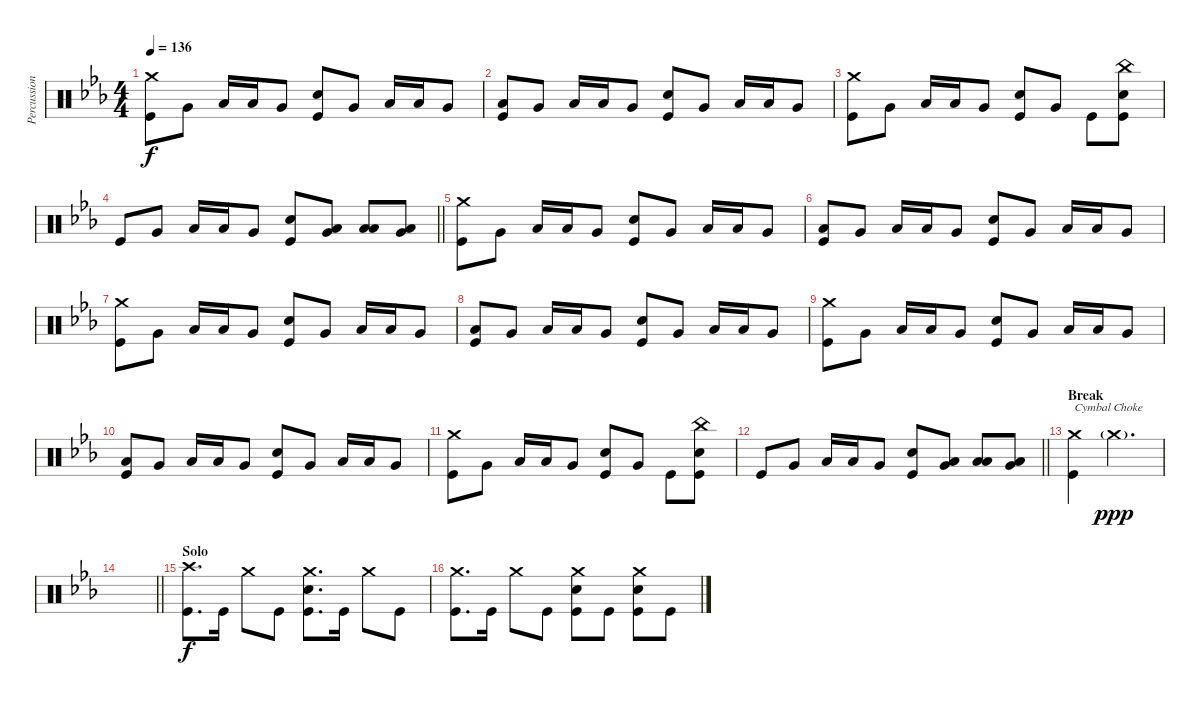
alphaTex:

\track ("Percussion" "Percussion") {instrument percussion}
\staff {score}
\articulation defaults
\ts (4 4)
\tempo 136
\clef neutral
\ks eb
("Crash medium (hit)" "Kick (hit)").8{dy f} "Very Low Tom (hit)".8 "Low Tom (hit)".16 "Low Tom (hit)".16 "Very Low Tom (hit)".8 ("Electric Snare (hit)" "Kick (hit)").8 "Very Low Tom (hit)".8 "Low Tom (hit)".16 "Low Tom (hit)".16 "Very Low Tom (hit)".8 |
("Low Tom (hit)" "Kick (hit)").8 "Very Low Tom (hit)".8 "Low Tom (hit)".16 "Low Tom (hit)".16 "Very Low Tom (hit)".8 ("Electric Snare (hit)" "Kick (hit)").8 "Very Low Tom (hit)".8 "Low Tom (hit)".16 "Low Tom (hit)".16 "Very Low Tom (hit)".8 |
("Crash medium (hit)" "Kick (hit)").8 "Very Low Tom (hit)".8 "Low Tom (hit)".16 "Low Tom (hit)".16 "Very Low Tom (hit)".8 ("Electric Snare (hit)" "Kick (hit)").8 "Very Low Tom (hit)".8 "Kick (hit)".8 ("China (hit)" "Electric Snare (hit)" "Kick (hit)").8 |
\barLineRight lightlight "Kick (hit)".8 "Very Low Tom (hit)".8 "Low Tom (hit)".16 "Low Tom (hit)".16 "Very Low Tom (hit)".8
("Electric Snare (hit)" "Kick (hit)").8 ("Low Tom (hit)" "Very Low Tom (hit)").8 ("Low Tom (hit)" "Low Tom (hit)").8 ("Low Tom (hit)" "Very Low Tom (hit)").8 |
("Crash medium (hit)" "Kick (hit)").8 "Very Low Tom (hit)".8 "Low Tom (hit)".16 "Low Tom (hit)".16 "Very Low Tom (hit)".8 ("Electric Snare (hit)" "Kick (hit)").8 "Very Low Tom (hit)".8 "Low Tom (hit)".16 "Low Tom (hit)".16 "Very Low Tom (hit)".8 |
("Low Tom (hit)" "Kick (hit)").8 "Very Low Tom (hit)".8 "Low Tom (hit)".16 "Low Tom (hit)".16 "Very Low Tom (hit)".8 ("Electric Snare (hit)" "Kick (hit)").8 "Very Low Tom (hit)".8 "Low Tom (hit)".16 "Low Tom (hit)".16 "Very Low Tom (hit)".8 |
("Crash medium (hit)" "Kick (hit)").8 "Very Low Tom (hit)".8 "Low Tom (hit)".16 "Low Tom (hit)".16 "Very Low Tom (hit)".8 ("Electric Snare (hit)" "Kick (hit)").8 "Very Low Tom (hit)".8 "Low Tom (hit)".16 "Low Tom (hit)".16 "Very Low Tom (hit)".8 |
("Low Tom (hit)" "Kick (hit)").8 "Very Low Tom (hit)".8 "Low Tom (hit)".16 "Low Tom (hit)".16 "Very Low Tom (hit)".8 ("Electric Snare (hit)" "Kick (hit)").8 "Very Low Tom (hit)".8 "Low Tom (hit)".16 "Low Tom (hit)".16 "Very Low Tom (hit)".8 |
("Crash medium (hit)" "Kick (hit)").8 "Very Low Tom (hit)".8 "Low Tom (hit)".16 "Low Tom (hit)".16 "Very Low Tom (hit)".8 ("Electric Snare (hit)" "Kick (hit)").8 "Very Low Tom (hit)".8 "Low Tom (hit)".16 "Low Tom (hit)".16 "Very Low Tom (hit)".8 |
("Low Tom (hit)" "Kick (hit)").8 "Very Low Tom (hit)".8 "Low Tom (hit)".16 "Low Tom (hit)".16 "Very Low Tom (hit)".8 ("Electric Snare (hit)" "Kick (hit)").8 "Very Low Tom (hit)".8 "Low Tom (hit)".16 "Low Tom (hit)".16 "Very Low Tom (hit)".8 |
("Crash medium (hit)" "Kick (hit)").8 "Very Low Tom (hit)".8 "Low Tom (hit)".16 "Low Tom (hit)".16 "Very Low Tom (hit)".8 ("Electric Snare (hit)" "Kick (hit)").8 "Very Low Tom (hit)".8 "Kick (hit)".8 ("China (hit)" "Electric Snare (hit)" "Kick (hit)").8 |
\barLineRight lightlight "Kick (hit)".8 "Very Low Tom (hit)".8 "Low Tom (hit)".16 "Low Tom (hit)".16 "Very Low Tom (hit)".8
("Electric Snare (hit)" "Kick (hit)").8 ("Low Tom (hit)" "Very Low Tom (hit)").8 ("Low Tom (hit)" "Low Tom (hit)").8 ("Low Tom (hit)" "Very Low Tom (hit)").8 |
\section ("" "Break")
("Crash medium (hit)" "Kick (hit)").4{txt "Cymbal Choke"} "Crash medium (hit)"{g}.2{d dy ppp volume 0} |
\barLineRight lightlight
|
\section ("" "Solo")
("Crash high (hit)" "Kick (hit)").8{d dy f volume 13} "Kick (hit)".16 "Crash medium (hit)".8 "Kick (hit)".8 ("Crash medium (hit)" "Electric Snare (hit)" "Kick (hit)").8{d} "Kick (hit)".16 "Crash medium (hit)".8 "Kick (hit)".8 |
("Crash medium (hit)" "Kick (hit)").8{d} "Kick (hit)".16 "Crash medium (hit)".8 "Kick (hit)".8 ("Crash medium (hit)" "Electric Snare (hit)" "Kick (hit)").8 "Kick (hit)".8 ("Crash medium (hit)" "Electric Snare (hit)" "Kick (hit)").8 "Kick (hit)".8
